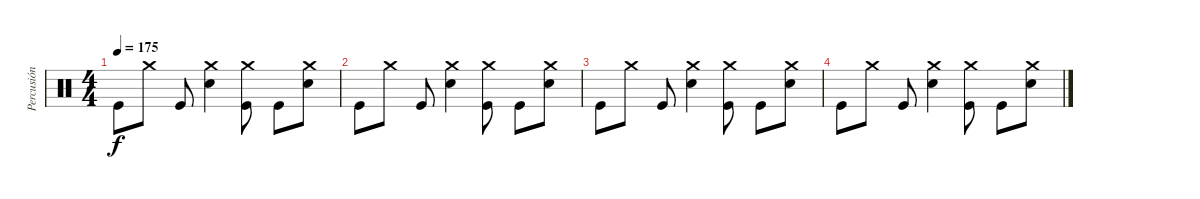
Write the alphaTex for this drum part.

\track ("Percusión" "Percusión") {instrument percussion}
\staff {score}
\articulation defaults
\ts (4 4)
\tempo 175
\clef neutral
\ks c "Kick (hit)".8{dy f} "Crash medium (hit)".8 "Kick (hit)".8
("Snare (hit) 2" "Crash medium (hit)").4 ("Kick (hit)" "Crash medium (hit)").8 "Kick (hit)".8 ("Snare (hit) 2" "Crash medium (hit)").8 |
"Kick (hit)".8 "Crash medium (hit)".8 "Kick (hit)".8 ("Snare (hit) 2" "Crash medium (hit)").4 ("Kick (hit)" "Crash medium (hit)").8 "Kick (hit)".8 ("Snare (hit) 2" "Crash medium (hit)").8 |
"Kick (hit)".8{volume 0} "Crash medium (hit)".8 "Kick (hit)".8 ("Snare (hit) 2" "Crash medium (hit)").4 ("Kick (hit)" "Crash medium (hit)").8 "Kick (hit)".8 ("Snare (hit) 2" "Crash medium (hit)").8 |
"Kick (hit)".8 "Crash medium (hit)".8 "Kick (hit)".8 ("Snare (hit) 2" "Crash medium (hit)").4 ("Kick (hit)" "Crash medium (hit)").8 "Kick (hit)".8 ("Snare (hit) 2" "Crash medium (hit)").8
